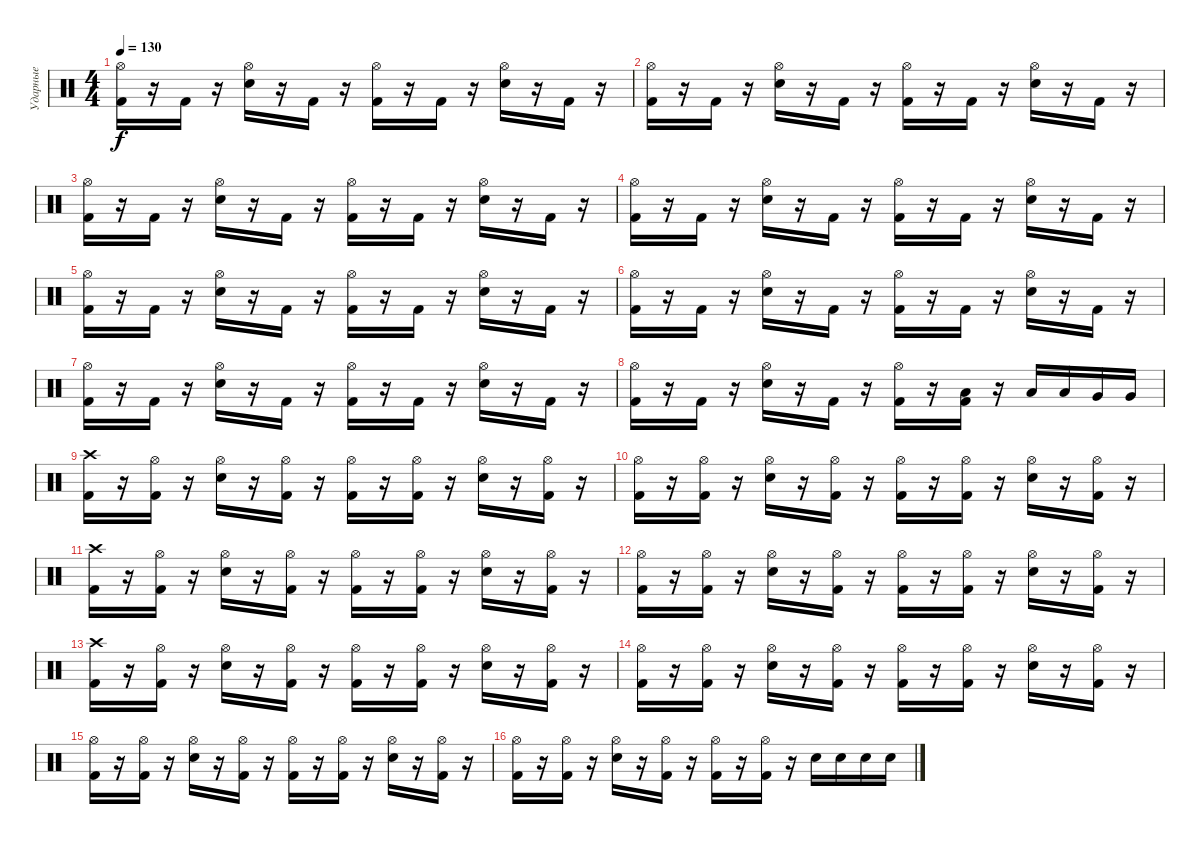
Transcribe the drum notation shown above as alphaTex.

\track ("Ударные" "Ударные") {instrument percussion}
\staff {score}
\articulation defaults
\ts (4 4)
\tempo 130
\clef neutral
\ks c
("Hi-Hat (open)" "Kick (hit) 2").16{dy f} r.16 "Kick (hit) 2".16 r.16 ("Hi-Hat (open)" "Electric Snare (hit)").16 r.16 "Kick (hit) 2".16 r.16 ("Hi-Hat (open)" "Kick (hit) 2").16 r.16 "Kick (hit) 2".16 r.16 ("Hi-Hat (open)" "Electric Snare (hit)").16 r.16 "Kick (hit) 2".16 r.16 |
("Hi-Hat (open)" "Kick (hit) 2").16 r.16 "Kick (hit) 2".16 r.16 ("Hi-Hat (open)" "Electric Snare (hit)").16 r.16 "Kick (hit) 2".16 r.16 ("Hi-Hat (open)" "Kick (hit) 2").16 r.16 "Kick (hit) 2".16 r.16 ("Hi-Hat (open)" "Electric Snare (hit)").16 r.16 "Kick (hit) 2".16 r.16 |
("Hi-Hat (open)" "Kick (hit) 2").16 r.16 "Kick (hit) 2".16 r.16 ("Hi-Hat (open)" "Electric Snare (hit)").16 r.16 "Kick (hit) 2".16 r.16 ("Hi-Hat (open)" "Kick (hit) 2").16 r.16 "Kick (hit) 2".16 r.16 ("Hi-Hat (open)" "Electric Snare (hit)").16 r.16 "Kick (hit) 2".16 r.16 |
("Hi-Hat (open)" "Kick (hit) 2").16 r.16 "Kick (hit) 2".16 r.16 ("Hi-Hat (open)" "Electric Snare (hit)").16 r.16 "Kick (hit) 2".16 r.16 ("Hi-Hat (open)" "Kick (hit) 2").16 r.16 "Kick (hit) 2".16 r.16 ("Hi-Hat (open)" "Electric Snare (hit)").16 r.16 "Kick (hit) 2".16 r.16 |
("Hi-Hat (open)" "Kick (hit) 2").16 r.16 "Kick (hit) 2".16 r.16 ("Hi-Hat (open)" "Electric Snare (hit)").16 r.16 "Kick (hit) 2".16 r.16 ("Hi-Hat (open)" "Kick (hit) 2").16 r.16 "Kick (hit) 2".16 r.16 ("Hi-Hat (open)" "Electric Snare (hit)").16 r.16 "Kick (hit) 2".16 r.16 |
("Hi-Hat (open)" "Kick (hit) 2").16 r.16 "Kick (hit) 2".16 r.16 ("Hi-Hat (open)" "Electric Snare (hit)").16 r.16 "Kick (hit) 2".16 r.16 ("Hi-Hat (open)" "Kick (hit) 2").16 r.16 "Kick (hit) 2".16 r.16 ("Hi-Hat (open)" "Electric Snare (hit)").16 r.16 "Kick (hit) 2".16 r.16 |
("Hi-Hat (open)" "Kick (hit) 2").16 r.16 "Kick (hit) 2".16 r.16 ("Hi-Hat (open)" "Electric Snare (hit)").16 r.16 "Kick (hit) 2".16 r.16 ("Hi-Hat (open)" "Kick (hit) 2").16 r.16 "Kick (hit) 2".16 r.16 ("Hi-Hat (open)" "Electric Snare (hit)").16 r.16 "Kick (hit) 2".16 r.16 |
("Hi-Hat (open)" "Kick (hit) 2").16 r.16 "Kick (hit) 2".16 r.16 ("Hi-Hat (open)" "Electric Snare (hit)").16 r.16 "Kick (hit) 2".16 r.16 ("Hi-Hat (open)" "Kick (hit) 2").16 r.16 ("Low Tom (hit)" "Kick (hit) 2").16 r.16 "Low Tom (hit)".16 "Low Tom (hit)".16 "Very Low Tom (hit)".16 "Very Low Tom (hit)".16 |
("Crash high (hit)" "Kick (hit) 2").16 r.16 ("Hi-Hat (open)" "Kick (hit) 2").16 r.16 ("Hi-Hat (open)" "Electric Snare (hit)").16 r.16 ("Hi-Hat (open)" "Kick (hit) 2").16 r.16 ("Hi-Hat (open)" "Kick (hit) 2").16 r.16 ("Hi-Hat (open)" "Kick (hit) 2").16 r.16 ("Hi-Hat (open)" "Electric Snare (hit)").16 r.16 ("Hi-Hat (open)" "Kick (hit) 2").16 r.16 |
("Hi-Hat (open)" "Kick (hit) 2").16 r.16 ("Hi-Hat (open)" "Kick (hit) 2").16 r.16 ("Hi-Hat (open)" "Electric Snare (hit)").16 r.16 ("Hi-Hat (open)" "Kick (hit) 2").16 r.16 ("Hi-Hat (open)" "Kick (hit) 2").16 r.16 ("Hi-Hat (open)" "Kick (hit) 2").16 r.16 ("Hi-Hat (open)" "Electric Snare (hit)").16 r.16 ("Hi-Hat (open)" "Kick (hit) 2").16 r.16 |
("Crash high (hit)" "Kick (hit) 2").16 r.16 ("Hi-Hat (open)" "Kick (hit) 2").16 r.16 ("Hi-Hat (open)" "Electric Snare (hit)").16 r.16 ("Hi-Hat (open)" "Kick (hit) 2").16 r.16 ("Hi-Hat (open)" "Kick (hit) 2").16 r.16 ("Hi-Hat (open)" "Kick (hit) 2").16 r.16 ("Hi-Hat (open)" "Electric Snare (hit)").16 r.16 ("Hi-Hat (open)" "Kick (hit) 2").16 r.16 |
("Hi-Hat (open)" "Kick (hit) 2").16 r.16 ("Hi-Hat (open)" "Kick (hit) 2").16 r.16 ("Hi-Hat (open)" "Electric Snare (hit)").16 r.16 ("Hi-Hat (open)" "Kick (hit) 2").16 r.16 ("Hi-Hat (open)" "Kick (hit) 2").16 r.16 ("Hi-Hat (open)" "Kick (hit) 2").16 r.16 ("Hi-Hat (open)" "Electric Snare (hit)").16 r.16 ("Hi-Hat (open)" "Kick (hit) 2").16 r.16 |
("Crash high (hit)" "Kick (hit) 2").16 r.16 ("Hi-Hat (open)" "Kick (hit) 2").16 r.16 ("Hi-Hat (open)" "Electric Snare (hit)").16 r.16 ("Hi-Hat (open)" "Kick (hit) 2").16 r.16 ("Hi-Hat (open)" "Kick (hit) 2").16 r.16 ("Hi-Hat (open)" "Kick (hit) 2").16 r.16 ("Hi-Hat (open)" "Electric Snare (hit)").16 r.16 ("Hi-Hat (open)" "Kick (hit) 2").16 r.16 |
("Hi-Hat (open)" "Kick (hit) 2").16 r.16 ("Hi-Hat (open)" "Kick (hit) 2").16 r.16 ("Hi-Hat (open)" "Electric Snare (hit)").16 r.16 ("Hi-Hat (open)" "Kick (hit) 2").16 r.16 ("Hi-Hat (open)" "Kick (hit) 2").16 r.16 ("Hi-Hat (open)" "Kick (hit) 2").16 r.16 ("Hi-Hat (open)" "Electric Snare (hit)").16 r.16 ("Hi-Hat (open)" "Kick (hit) 2").16 r.16 |
("Hi-Hat (open)" "Kick (hit) 2").16 r.16 ("Hi-Hat (open)" "Kick (hit) 2").16 r.16 ("Hi-Hat (open)" "Electric Snare (hit)").16 r.16 ("Hi-Hat (open)" "Kick (hit) 2").16 r.16 ("Hi-Hat (open)" "Kick (hit) 2").16 r.16 ("Hi-Hat (open)" "Kick (hit) 2").16 r.16 ("Hi-Hat (open)" "Electric Snare (hit)").16 r.16 ("Hi-Hat (open)" "Kick (hit) 2").16 r.16 |
("Hi-Hat (open)" "Kick (hit) 2").16 r.16 ("Hi-Hat (open)" "Kick (hit) 2").16 r.16 ("Hi-Hat (open)" "Electric Snare (hit)").16 r.16 ("Hi-Hat (open)" "Kick (hit) 2").16 r.16 ("Hi-Hat (open)" "Kick (hit) 2").16 r.16 ("Hi-Hat (open)" "Kick (hit) 2").16 r.16 "Electric Snare (hit)".16 "Electric Snare (hit)".16 "Electric Snare (hit)".16 "Electric Snare (hit)".16
